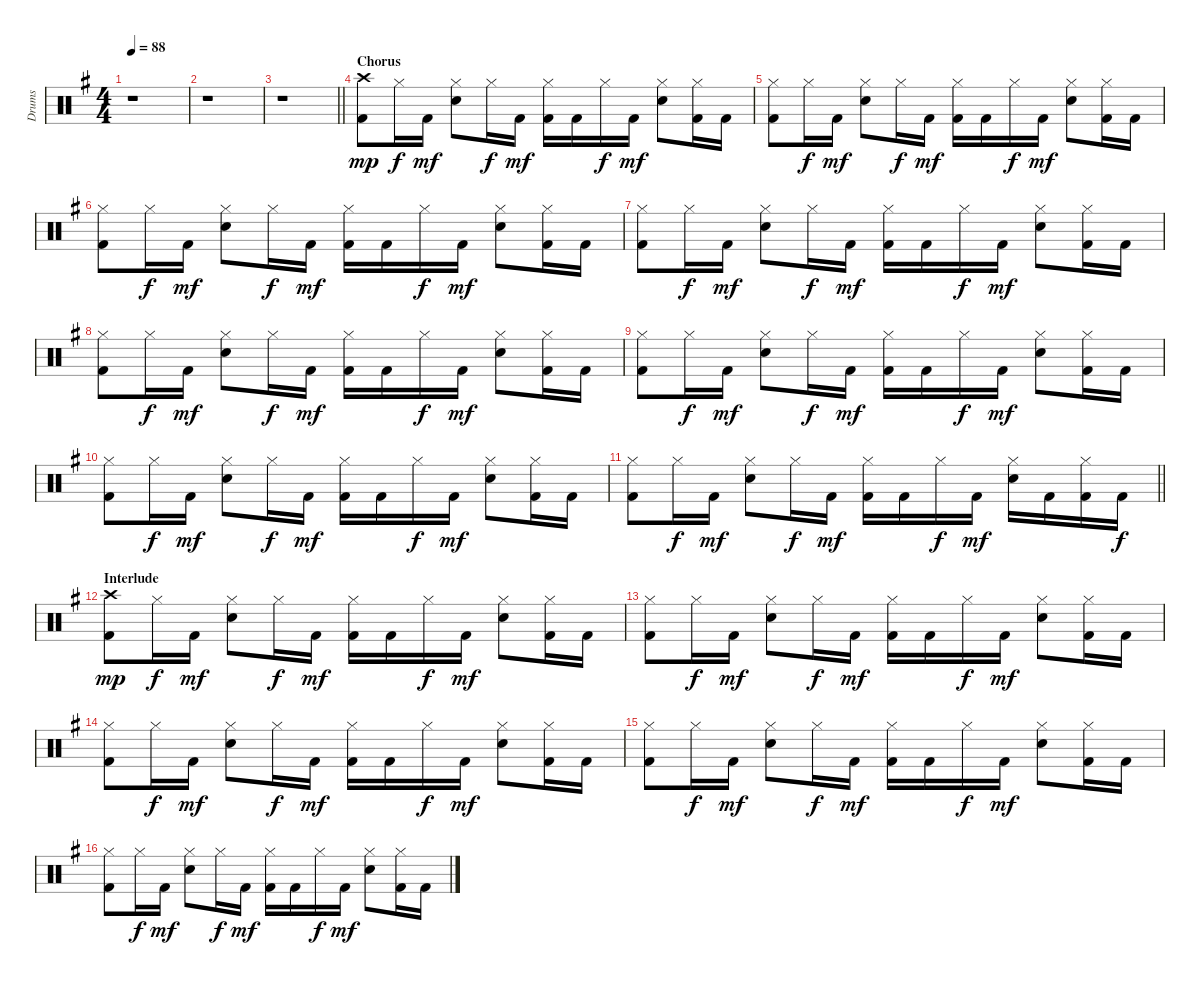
\track ("Drums" "Drums") {instrument percussion}
\staff {score}
\articulation defaults
\ts (4 4)
\tempo 88
\clef neutral
\ks eminor
r.1{dy mp} |
r.1 |
\barLineRight lightlight
r.1 |
\section ("" "Chorus")
("Kick (hit) 2" "Crash high (hit)").8 "Hi-Hat (closed)".16{dy f} "Kick (hit) 2".16{dy mf} ("Snare (hit) 2" "Hi-Hat (closed)").8 "Hi-Hat (closed)".16{dy f} "Kick (hit) 2".16{dy mf} ("Kick (hit) 2" "Hi-Hat (closed)").16 "Kick (hit) 2".16 "Hi-Hat (closed)".16{dy f} "Kick (hit) 2".16{dy mf} ("Snare (hit) 2" "Hi-Hat (closed)").8 ("Kick (hit) 2" "Hi-Hat (closed)").16 "Kick (hit) 2".16 |
("Kick (hit) 2" "Hi-Hat (closed)").8 "Hi-Hat (closed)".16{dy f} "Kick (hit) 2".16{dy mf} ("Snare (hit) 2" "Hi-Hat (closed)").8 "Hi-Hat (closed)".16{dy f} "Kick (hit) 2".16{dy mf} ("Kick (hit) 2" "Hi-Hat (closed)").16 "Kick (hit) 2".16 "Hi-Hat (closed)".16{dy f} "Kick (hit) 2".16{dy mf} ("Snare (hit) 2" "Hi-Hat (closed)").8 ("Kick (hit) 2" "Hi-Hat (closed)").16 "Kick (hit) 2".16 |
("Kick (hit) 2" "Hi-Hat (closed)").8 "Hi-Hat (closed)".16{dy f} "Kick (hit) 2".16{dy mf} ("Snare (hit) 2" "Hi-Hat (closed)").8 "Hi-Hat (closed)".16{dy f} "Kick (hit) 2".16{dy mf} ("Kick (hit) 2" "Hi-Hat (closed)").16 "Kick (hit) 2".16 "Hi-Hat (closed)".16{dy f} "Kick (hit) 2".16{dy mf} ("Snare (hit) 2" "Hi-Hat (closed)").8 ("Kick (hit) 2" "Hi-Hat (closed)").16 "Kick (hit) 2".16 |
("Kick (hit) 2" "Hi-Hat (closed)").8 "Hi-Hat (closed)".16{dy f} "Kick (hit) 2".16{dy mf} ("Snare (hit) 2" "Hi-Hat (closed)").8 "Hi-Hat (closed)".16{dy f} "Kick (hit) 2".16{dy mf} ("Kick (hit) 2" "Hi-Hat (closed)").16 "Kick (hit) 2".16 "Hi-Hat (closed)".16{dy f} "Kick (hit) 2".16{dy mf} ("Snare (hit) 2" "Hi-Hat (closed)").8 ("Kick (hit) 2" "Hi-Hat (closed)").16 "Kick (hit) 2".16 |
("Kick (hit) 2" "Hi-Hat (closed)").8 "Hi-Hat (closed)".16{dy f} "Kick (hit) 2".16{dy mf} ("Snare (hit) 2" "Hi-Hat (closed)").8 "Hi-Hat (closed)".16{dy f} "Kick (hit) 2".16{dy mf} ("Kick (hit) 2" "Hi-Hat (closed)").16 "Kick (hit) 2".16 "Hi-Hat (closed)".16{dy f} "Kick (hit) 2".16{dy mf} ("Snare (hit) 2" "Hi-Hat (closed)").8 ("Kick (hit) 2" "Hi-Hat (closed)").16 "Kick (hit) 2".16 |
("Kick (hit) 2" "Hi-Hat (closed)").8 "Hi-Hat (closed)".16{dy f} "Kick (hit) 2".16{dy mf} ("Snare (hit) 2" "Hi-Hat (closed)").8 "Hi-Hat (closed)".16{dy f} "Kick (hit) 2".16{dy mf} ("Kick (hit) 2" "Hi-Hat (closed)").16 "Kick (hit) 2".16 "Hi-Hat (closed)".16{dy f} "Kick (hit) 2".16{dy mf} ("Snare (hit) 2" "Hi-Hat (closed)").8 ("Kick (hit) 2" "Hi-Hat (closed)").16 "Kick (hit) 2".16 |
("Kick (hit) 2" "Hi-Hat (closed)").8 "Hi-Hat (closed)".16{dy f} "Kick (hit) 2".16{dy mf} ("Snare (hit) 2" "Hi-Hat (closed)").8 "Hi-Hat (closed)".16{dy f} "Kick (hit) 2".16{dy mf} ("Kick (hit) 2" "Hi-Hat (closed)").16 "Kick (hit) 2".16 "Hi-Hat (closed)".16{dy f} "Kick (hit) 2".16{dy mf} ("Snare (hit) 2" "Hi-Hat (closed)").8 ("Kick (hit) 2" "Hi-Hat (closed)").16 "Kick (hit) 2".16 |
\barLineRight lightlight
("Kick (hit) 2" "Hi-Hat (closed)").8 "Hi-Hat (closed)".16{dy f} "Kick (hit) 2".16{dy mf} ("Snare (hit) 2" "Hi-Hat (closed)").8 "Hi-Hat (closed)".16{dy f} "Kick (hit) 2".16{dy mf} ("Kick (hit) 2" "Hi-Hat (closed)").16 "Kick (hit) 2".16 "Hi-Hat (closed)".16{dy f} "Kick (hit) 2".16{dy mf} ("Snare (hit) 2" "Hi-Hat (closed)").16 "Kick (hit) 2".16 ("Kick (hit) 2" "Hi-Hat (closed)").16 "Kick (hit) 2".16{dy f} |
\section ("" "Interlude")
("Kick (hit) 2" "Crash high (hit)").8{dy mp} "Hi-Hat (closed)".16{dy f} "Kick (hit) 2".16{dy mf} ("Snare (hit) 2" "Hi-Hat (closed)").8 "Hi-Hat (closed)".16{dy f} "Kick (hit) 2".16{dy mf} ("Kick (hit) 2" "Hi-Hat (closed)").16 "Kick (hit) 2".16 "Hi-Hat (closed)".16{dy f} "Kick (hit) 2".16{dy mf} ("Snare (hit) 2" "Hi-Hat (closed)").8 ("Kick (hit) 2" "Hi-Hat (closed)").16 "Kick (hit) 2".16 |
("Kick (hit) 2" "Hi-Hat (closed)").8 "Hi-Hat (closed)".16{dy f} "Kick (hit) 2".16{dy mf} ("Snare (hit) 2" "Hi-Hat (closed)").8 "Hi-Hat (closed)".16{dy f} "Kick (hit) 2".16{dy mf} ("Kick (hit) 2" "Hi-Hat (closed)").16 "Kick (hit) 2".16 "Hi-Hat (closed)".16{dy f} "Kick (hit) 2".16{dy mf} ("Snare (hit) 2" "Hi-Hat (closed)").8 ("Kick (hit) 2" "Hi-Hat (closed)").16 "Kick (hit) 2".16 |
("Kick (hit) 2" "Hi-Hat (closed)").8 "Hi-Hat (closed)".16{dy f} "Kick (hit) 2".16{dy mf} ("Snare (hit) 2" "Hi-Hat (closed)").8 "Hi-Hat (closed)".16{dy f} "Kick (hit) 2".16{dy mf} ("Kick (hit) 2" "Hi-Hat (closed)").16 "Kick (hit) 2".16 "Hi-Hat (closed)".16{dy f} "Kick (hit) 2".16{dy mf} ("Snare (hit) 2" "Hi-Hat (closed)").8 ("Kick (hit) 2" "Hi-Hat (closed)").16 "Kick (hit) 2".16 |
("Kick (hit) 2" "Hi-Hat (closed)").8 "Hi-Hat (closed)".16{dy f} "Kick (hit) 2".16{dy mf} ("Snare (hit) 2" "Hi-Hat (closed)").8 "Hi-Hat (closed)".16{dy f} "Kick (hit) 2".16{dy mf} ("Kick (hit) 2" "Hi-Hat (closed)").16 "Kick (hit) 2".16 "Hi-Hat (closed)".16{dy f} "Kick (hit) 2".16{dy mf} ("Snare (hit) 2" "Hi-Hat (closed)").8 ("Kick (hit) 2" "Hi-Hat (closed)").16 "Kick (hit) 2".16 |
("Kick (hit) 2" "Hi-Hat (closed)").8 "Hi-Hat (closed)".16{dy f} "Kick (hit) 2".16{dy mf} ("Snare (hit) 2" "Hi-Hat (closed)").8 "Hi-Hat (closed)".16{dy f} "Kick (hit) 2".16{dy mf} ("Kick (hit) 2" "Hi-Hat (closed)").16 "Kick (hit) 2".16 "Hi-Hat (closed)".16{dy f} "Kick (hit) 2".16{dy mf} ("Snare (hit) 2" "Hi-Hat (closed)").8 ("Kick (hit) 2" "Hi-Hat (closed)").16 "Kick (hit) 2".16
